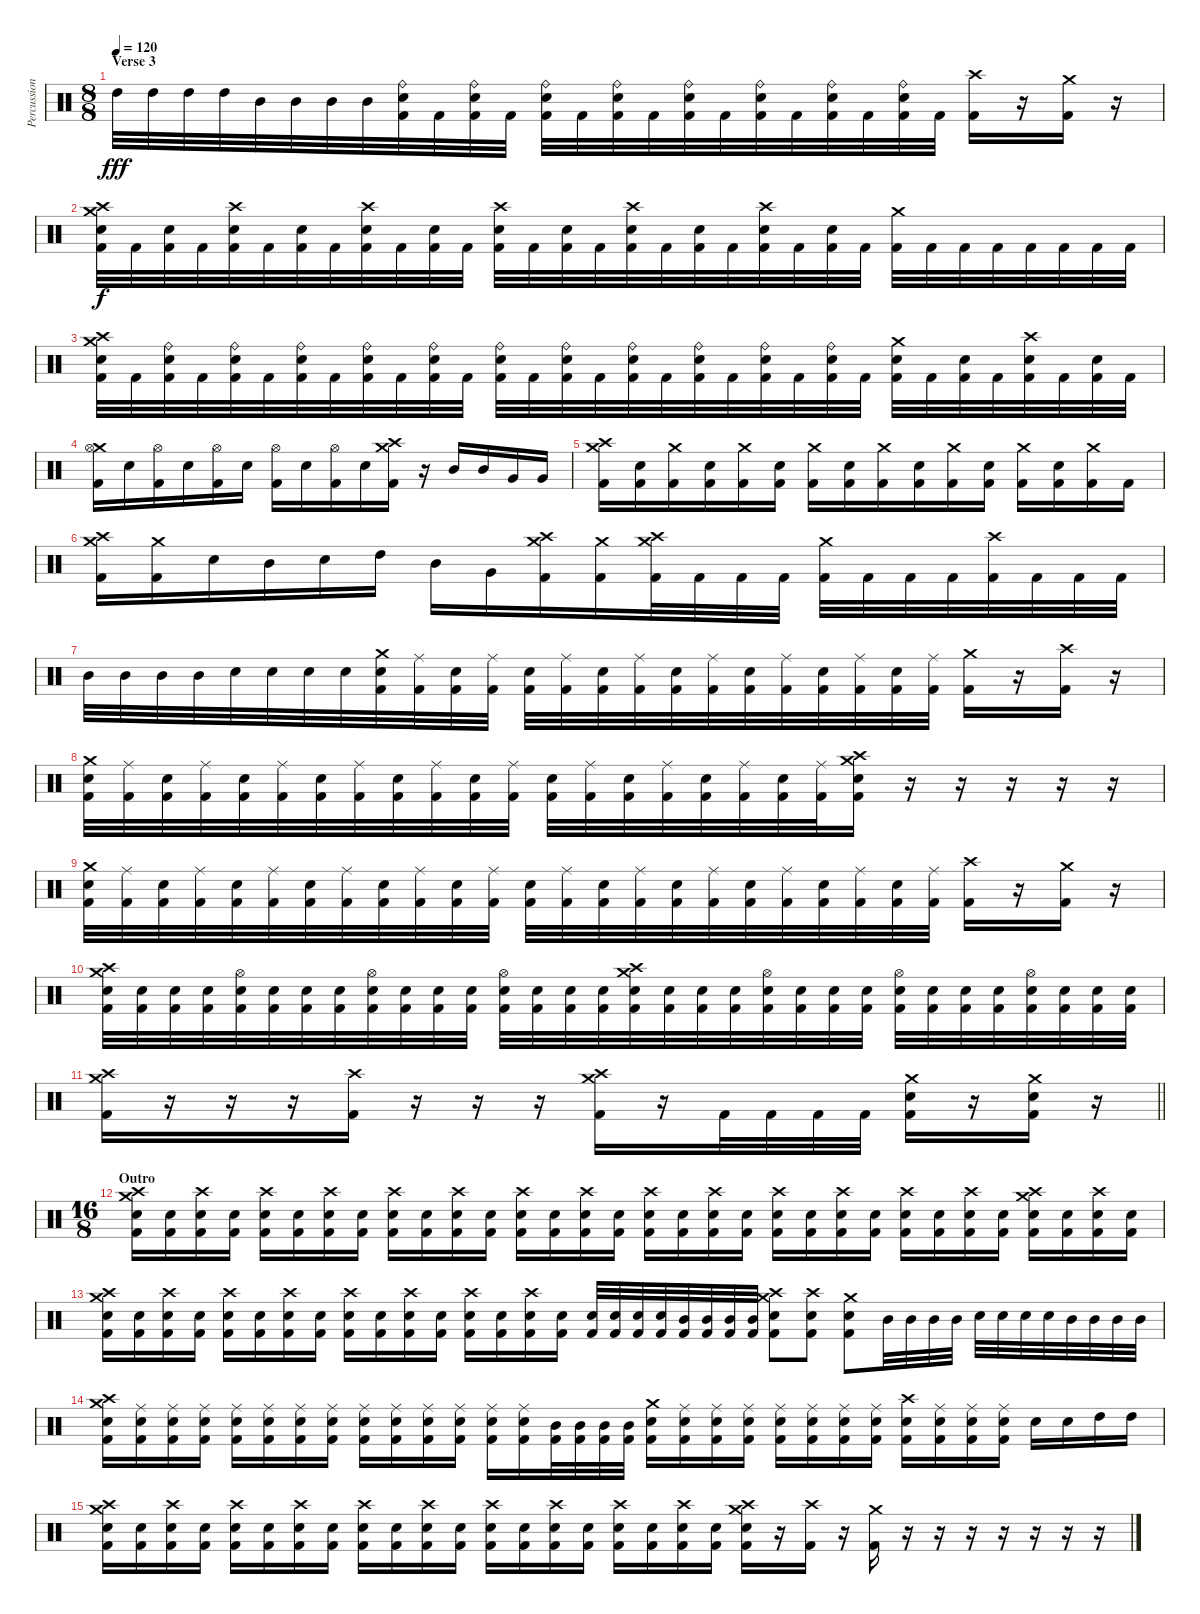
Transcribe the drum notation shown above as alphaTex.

\track ("Percussion" "Percussion") {instrument percussion}
\staff {score}
\articulation defaults
\ts (8 8)
\section ("" "Verse 3")
\tempo 120
\clef neutral
\ks c "High Tom (hit)".32{dy fff} "High Tom (hit)".32 "High Tom (hit)".32 "High Tom (hit)".32 "Mid Tom (hit)".32 "Mid Tom (hit)".32 "Mid Tom (hit)".32 "Mid Tom (hit)".32
("Ride (bell)" "Snare (hit) 2" "Kick (hit) 2").32 "Kick (hit) 2".32 ("Ride (bell)" "Snare (hit) 2" "Kick (hit) 2").32 "Kick (hit) 2".32 ("Ride (bell)" "Snare (hit) 2" "Kick (hit) 2").32 "Kick (hit) 2".32 ("Ride (bell)" "Snare (hit) 2" "Kick (hit) 2").32 "Kick (hit) 2".32 ("Ride (bell)" "Snare (hit) 2" "Kick (hit) 2").32 "Kick (hit) 2".32 ("Ride (bell)" "Snare (hit) 2" "Kick (hit) 2").32 "Kick (hit) 2".32 ("Ride (bell)" "Snare (hit) 2" "Kick (hit) 2").32 "Kick (hit) 2".32 ("Ride (bell)" "Snare (hit) 2" "Kick (hit) 2").32 "Kick (hit) 2".32 ("Crash high (hit)" "Kick (hit) 2").16 r.16 ("Crash medium (hit)" "Kick (hit) 2").16 r.16 |
("Crash medium (hit)" "Crash high (hit)" "Snare (hit) 2" "Kick (hit) 2").32{dy f} "Kick (hit) 2".32 ("Snare (hit) 2" "Kick (hit) 2").32 "Kick (hit) 2".32 ("Crash high (hit)" "Snare (hit) 2" "Kick (hit) 2").32 "Kick (hit) 2".32 ("Snare (hit) 2" "Kick (hit) 2").32 "Kick (hit) 2".32 ("Crash high (hit)" "Snare (hit) 2" "Kick (hit) 2").32 "Kick (hit) 2".32 ("Snare (hit) 2" "Kick (hit) 2").32 "Kick (hit) 2".32 ("Crash high (hit)" "Snare (hit) 2" "Kick (hit) 2").32 "Kick (hit) 2".32 ("Snare (hit) 2" "Kick (hit) 2").32 "Kick (hit) 2".32 ("Crash high (hit)" "Snare (hit) 2" "Kick (hit) 2").32 "Kick (hit) 2".32 ("Snare (hit) 2" "Kick (hit) 2").32 "Kick (hit) 2".32 ("Crash high (hit)" "Snare (hit) 2" "Kick (hit) 2").32 "Kick (hit) 2".32 ("Snare (hit) 2" "Kick (hit) 2").32 "Kick (hit) 2".32 ("Crash medium (hit)" "Kick (hit) 2").32 "Kick (hit) 2".32 "Kick (hit) 2".32 "Kick (hit) 2".32 "Kick (hit) 2".32 "Kick (hit) 2".32 "Kick (hit) 2".32 "Kick (hit) 2".32 |
("Crash medium (hit)" "Crash high (hit)" "Snare (hit) 2" "Kick (hit) 2").32 "Kick (hit) 2".32 ("Ride (bell)" "Snare (hit) 2" "Kick (hit) 2").32 "Kick (hit) 2".32 ("Ride (bell)" "Snare (hit) 2" "Kick (hit) 2").32 "Kick (hit) 2".32 ("Ride (bell)" "Snare (hit) 2" "Kick (hit) 2").32 "Kick (hit) 2".32 ("Ride (bell)" "Snare (hit) 2" "Kick (hit) 2").32 "Kick (hit) 2".32 ("Ride (bell)" "Snare (hit) 2" "Kick (hit) 2").32 "Kick (hit) 2".32 ("Ride (bell)" "Snare (hit) 2" "Kick (hit) 2").32 "Kick (hit) 2".32 ("Ride (bell)" "Snare (hit) 2" "Kick (hit) 2").32 "Kick (hit) 2".32 ("Ride (bell)" "Snare (hit) 2" "Kick (hit) 2").32 "Kick (hit) 2".32 ("Ride (bell)" "Snare (hit) 2" "Kick (hit) 2").32 "Kick (hit) 2".32 ("Ride (bell)" "Snare (hit) 2" "Kick (hit) 2").32 "Kick (hit) 2".32 ("Ride (bell)" "Snare (hit) 2" "Kick (hit) 2").32 "Kick (hit) 2".32 ("Crash medium (hit)" "Snare (hit) 2" "Kick (hit) 2").32 "Kick (hit) 2".32 ("Snare (hit) 2" "Kick (hit) 2").32 "Kick (hit) 2".32 ("Crash high (hit)" "Snare (hit) 2" "Kick (hit) 2").32 "Kick (hit) 2".32 ("Snare (hit) 2" "Kick (hit) 2").32 "Kick (hit) 2".32 |
("Crash medium (hit)" "Hi-Hat (open)" "Kick (hit) 2").16 "Snare (hit) 2".16 ("Hi-Hat (open)" "Kick (hit) 2").16 "Snare (hit) 2".16 ("Hi-Hat (open)" "Kick (hit) 2").16 "Snare (hit) 2".16 ("Hi-Hat (open)" "Kick (hit) 2").16 "Snare (hit) 2".16 ("Hi-Hat (open)" "Kick (hit) 2").16 "Snare (hit) 2".16 ("Crash high (hit)" "Crash medium (hit)" "Kick (hit) 2").16 r.16 "Mid Tom (hit)".16 "Mid Tom (hit)".16 "Very Low Tom (hit)".16 "Very Low Tom (hit)".16 |
("Crash medium (hit)" "Crash high (hit)" "Kick (hit) 2").16 ("Snare (hit) 2" "Kick (hit) 2").16 ("Crash medium (hit)" "Kick (hit) 2").16 ("Snare (hit) 2" "Kick (hit) 2").16 ("Crash medium (hit)" "Kick (hit) 2").16 ("Snare (hit) 2" "Kick (hit) 2").16 ("Crash medium (hit)" "Kick (hit) 2").16 ("Snare (hit) 2" "Kick (hit) 2").16 ("Crash medium (hit)" "Kick (hit) 2").16 ("Snare (hit) 2" "Kick (hit) 2").16 ("Crash medium (hit)" "Kick (hit) 2").16 ("Snare (hit) 2" "Kick (hit) 2").16 ("Crash medium (hit)" "Kick (hit) 2").16 ("Snare (hit) 2" "Kick (hit) 2").16 ("Crash medium (hit)" "Kick (hit) 2").16 "Kick (hit) 2".16 |
("Crash medium (hit)" "Crash high (hit)" "Kick (hit) 2").16 ("Crash medium (hit)" "Kick (hit) 2").16 "Snare (hit) 2".16 "Mid Tom (hit)".16 "Snare (hit) 2".16 "High Tom (hit)".16 "Mid Tom (hit)".16 "Very Low Tom (hit)".16 ("Crash medium (hit)" "Crash high (hit)" "Kick (hit) 2").16 ("Crash medium (hit)" "Kick (hit) 2").16 ("Crash medium (hit)" "Crash high (hit)" "Kick (hit) 2").32 "Kick (hit) 2".32 "Kick (hit) 2".32 "Kick (hit) 2".32 ("Crash medium (hit)" "Kick (hit) 2").32 "Kick (hit) 2".32 "Kick (hit) 2".32 "Kick (hit) 2".32 ("Crash high (hit)" "Kick (hit) 2").32 "Kick (hit) 2".32 "Kick (hit) 2".32 "Kick (hit) 2".32 |
"Mid Tom (hit)".32 "Mid Tom (hit)".32 "Mid Tom (hit)".32 "Mid Tom (hit)".32 "Snare (hit) 2".32 "Snare (hit) 2".32 "Snare (hit) 2".32 "Snare (hit) 2".32 ("Crash medium (hit)" "Snare (hit) 2" "Kick (hit) 2").32 ("Ride (middle)" "Kick (hit) 2").32 ("Snare (hit) 2" "Kick (hit) 2").32 ("Ride (middle)" "Kick (hit) 2").32 ("Snare (hit) 2" "Kick (hit) 2").32 ("Ride (middle)" "Kick (hit) 2").32 ("Snare (hit) 2" "Kick (hit) 2").32 ("Ride (middle)" "Kick (hit) 2").32 ("Snare (hit) 2" "Kick (hit) 2").32 ("Ride (middle)" "Kick (hit) 2").32 ("Snare (hit) 2" "Kick (hit) 2").32 ("Ride (middle)" "Kick (hit) 2").32 ("Snare (hit) 2" "Kick (hit) 2").32 ("Ride (middle)" "Kick (hit) 2").32 ("Snare (hit) 2" "Kick (hit) 2").32 ("Ride (middle)" "Kick (hit) 2").32 ("Crash medium (hit)" "Kick (hit) 2").16 r.16 ("Crash high (hit)" "Kick (hit) 2").16 r.16 |
("Crash medium (hit)" "Snare (hit) 2" "Kick (hit) 2").32 ("Ride (middle)" "Kick (hit) 2").32 ("Snare (hit) 2" "Kick (hit) 2").32 ("Ride (middle)" "Kick (hit) 2").32 ("Snare (hit) 2" "Kick (hit) 2").32 ("Ride (middle)" "Kick (hit) 2").32 ("Snare (hit) 2" "Kick (hit) 2").32 ("Ride (middle)" "Kick (hit) 2").32 ("Snare (hit) 2" "Kick (hit) 2").32 ("Ride (middle)" "Kick (hit) 2").32 ("Snare (hit) 2" "Kick (hit) 2").32 ("Ride (middle)" "Kick (hit) 2").32 ("Snare (hit) 2" "Kick (hit) 2").32 ("Ride (middle)" "Kick (hit) 2").32 ("Snare (hit) 2" "Kick (hit) 2").32 ("Ride (middle)" "Kick (hit) 2").32 ("Snare (hit) 2" "Kick (hit) 2").32 ("Ride (middle)" "Kick (hit) 2").32 ("Snare (hit) 2" "Kick (hit) 2").32 ("Ride (middle)" "Kick (hit) 2").32 ("Crash medium (hit)" "Crash high (hit)" "Snare (hit) 2" "Kick (hit) 2").16 r.16 r.16 r.16 r.16 r.16 |
("Crash medium (hit)" "Snare (hit) 2" "Kick (hit) 2").32 ("Ride (middle)" "Kick (hit) 2").32 ("Snare (hit) 2" "Kick (hit) 2").32 ("Ride (middle)" "Kick (hit) 2").32 ("Snare (hit) 2" "Kick (hit) 2").32 ("Ride (middle)" "Kick (hit) 2").32 ("Snare (hit) 2" "Kick (hit) 2").32 ("Ride (middle)" "Kick (hit) 2").32 ("Snare (hit) 2" "Kick (hit) 2").32 ("Ride (middle)" "Kick (hit) 2").32 ("Snare (hit) 2" "Kick (hit) 2").32 ("Ride (middle)" "Kick (hit) 2").32 ("Snare (hit) 2" "Kick (hit) 2").32 ("Ride (middle)" "Kick (hit) 2").32 ("Snare (hit) 2" "Kick (hit) 2").32 ("Ride (middle)" "Kick (hit) 2").32 ("Snare (hit) 2" "Kick (hit) 2").32 ("Ride (middle)" "Kick (hit) 2").32 ("Snare (hit) 2" "Kick (hit) 2").32 ("Ride (middle)" "Kick (hit) 2").32 ("Snare (hit) 2" "Kick (hit) 2").32 ("Ride (middle)" "Kick (hit) 2").32 ("Snare (hit) 2" "Kick (hit) 2").32 ("Ride (middle)" "Kick (hit) 2").32 ("Crash high (hit)" "Kick (hit) 2").16 r.16 ("Crash medium (hit)" "Kick (hit) 2").16 r.16 |
("Crash medium (hit)" "Crash high (hit)" "Snare (hit) 2" "Kick (hit) 2").32 ("Snare (hit) 2" "Kick (hit) 2").32 ("Snare (hit) 2" "Kick (hit) 2").32 ("Snare (hit) 2" "Kick (hit) 2").32 ("Hi-Hat (open)" "Snare (hit) 2" "Kick (hit) 2").32 ("Snare (hit) 2" "Kick (hit) 2").32 ("Snare (hit) 2" "Kick (hit) 2").32 ("Snare (hit) 2" "Kick (hit) 2").32 ("Hi-Hat (open)" "Snare (hit) 2" "Kick (hit) 2").32 ("Snare (hit) 2" "Kick (hit) 2").32 ("Snare (hit) 2" "Kick (hit) 2").32 ("Snare (hit) 2" "Kick (hit) 2").32 ("Hi-Hat (open)" "Snare (hit) 2" "Kick (hit) 2").32 ("Snare (hit) 2" "Kick (hit) 2").32 ("Snare (hit) 2" "Kick (hit) 2").32 ("Snare (hit) 2" "Kick (hit) 2").32 ("Crash medium (hit)" "Crash high (hit)" "Snare (hit) 2" "Kick (hit) 2").32 ("Snare (hit) 2" "Kick (hit) 2").32 ("Snare (hit) 2" "Kick (hit) 2").32 ("Snare (hit) 2" "Kick (hit) 2").32 ("Hi-Hat (open)" "Snare (hit) 2" "Kick (hit) 2").32 ("Snare (hit) 2" "Kick (hit) 2").32 ("Snare (hit) 2" "Kick (hit) 2").32 ("Snare (hit) 2" "Kick (hit) 2").32 ("Hi-Hat (open)" "Snare (hit) 2" "Kick (hit) 2").32 ("Snare (hit) 2" "Kick (hit) 2").32 ("Snare (hit) 2" "Kick (hit) 2").32 ("Snare (hit) 2" "Kick (hit) 2").32 ("Hi-Hat (open)" "Snare (hit) 2" "Kick (hit) 2").32 ("Snare (hit) 2" "Kick (hit) 2").32 ("Snare (hit) 2" "Kick (hit) 2").32 ("Snare (hit) 2" "Kick (hit) 2").32 |
\barLineRight lightlight
("Crash medium (hit)" "Crash high (hit)" "Kick (hit) 2").16 r.16 r.16 r.16 ("Crash high (hit)" "Kick (hit) 2").16 r.16 r.16 r.16 ("Crash high (hit)" "Crash medium (hit)" "Kick (hit) 2").16 r.16 "Kick (hit) 2".32 "Kick (hit) 2".32 "Kick (hit) 2".32 "Kick (hit) 2".32 ("Crash medium (hit)" "Snare (hit) 2" "Kick (hit) 2").16 r.16 ("Crash medium (hit)" "Snare (hit) 2" "Kick (hit) 2").16 r.16 |
\ts (16 8)
\section ("" "Outro")
("Crash medium (hit)" "Crash high (hit)" "Snare (hit) 2" "Kick (hit) 2").16 ("Snare (hit) 2" "Kick (hit) 2").16 ("Crash high (hit)" "Snare (hit) 2" "Kick (hit) 2").16 ("Snare (hit) 2" "Kick (hit) 2").16 ("Crash high (hit)" "Snare (hit) 2" "Kick (hit) 2").16 ("Snare (hit) 2" "Kick (hit) 2").16 ("Crash high (hit)" "Snare (hit) 2" "Kick (hit) 2").16 ("Snare (hit) 2" "Kick (hit) 2").16 ("Crash high (hit)" "Snare (hit) 2" "Kick (hit) 2").16 ("Snare (hit) 2" "Kick (hit) 2").16 ("Crash high (hit)" "Snare (hit) 2" "Kick (hit) 2").16 ("Snare (hit) 2" "Kick (hit) 2").16 ("Crash high (hit)" "Snare (hit) 2" "Kick (hit) 2").16 ("Snare (hit) 2" "Kick (hit) 2").16 ("Crash high (hit)" "Snare (hit) 2" "Kick (hit) 2").16 ("Snare (hit) 2" "Kick (hit) 2").16 ("Crash high (hit)" "Snare (hit) 2" "Kick (hit) 2").16 ("Snare (hit) 2" "Kick (hit) 2").16 ("Crash high (hit)" "Snare (hit) 2" "Kick (hit) 2").16 ("Snare (hit) 2" "Kick (hit) 2").16 ("Crash high (hit)" "Snare (hit) 2" "Kick (hit) 2").16 ("Snare (hit) 2" "Kick (hit) 2").16 ("Crash high (hit)" "Snare (hit) 2" "Kick (hit) 2").16 ("Snare (hit) 2" "Kick (hit) 2").16 ("Crash high (hit)" "Snare (hit) 2" "Kick (hit) 2").16 ("Snare (hit) 2" "Kick (hit) 2").16 ("Crash high (hit)" "Snare (hit) 2" "Kick (hit) 2").16 ("Snare (hit) 2" "Kick (hit) 2").16 ("Crash medium (hit)" "Crash high (hit)" "Snare (hit) 2" "Kick (hit) 2").16 ("Snare (hit) 2" "Kick (hit) 2").16 ("Crash high (hit)" "Snare (hit) 2" "Kick (hit) 2").16 ("Snare (hit) 2" "Kick (hit) 2").16 |
("Crash medium (hit)" "Crash high (hit)" "Snare (hit) 2" "Kick (hit) 2").16 ("Snare (hit) 2" "Kick (hit) 2").16 ("Crash high (hit)" "Snare (hit) 2" "Kick (hit) 2").16 ("Snare (hit) 2" "Kick (hit) 2").16 ("Crash high (hit)" "Snare (hit) 2" "Kick (hit) 2").16 ("Snare (hit) 2" "Kick (hit) 2").16 ("Crash high (hit)" "Snare (hit) 2" "Kick (hit) 2").16 ("Snare (hit) 2" "Kick (hit) 2").16 ("Crash high (hit)" "Snare (hit) 2" "Kick (hit) 2").16 ("Snare (hit) 2" "Kick (hit) 2").16 ("Crash high (hit)" "Snare (hit) 2" "Kick (hit) 2").16 ("Snare (hit) 2" "Kick (hit) 2").16 ("Crash high (hit)" "Snare (hit) 2" "Kick (hit) 2").16 ("Snare (hit) 2" "Kick (hit) 2").16 ("Crash high (hit)" "Snare (hit) 2" "Kick (hit) 2").16 ("Snare (hit) 2" "Kick (hit) 2").16 ("Snare (hit) 2" "Kick (hit) 2").32 ("Snare (hit) 2" "Kick (hit) 2").32 ("Snare (hit) 2" "Kick (hit) 2").32 ("Snare (hit) 2" "Kick (hit) 2").32 ("Mid Tom (hit)" "Kick (hit) 2").32 ("Mid Tom (hit)" "Kick (hit) 2").32 ("Mid Tom (hit)" "Kick (hit) 2").32 ("Mid Tom (hit)" "Kick (hit) 2").32 ("Crash medium (hit)" "Crash high (hit)" "Snare (hit) 2" "Kick (hit) 2").8 ("Crash high (hit)" "Snare (hit) 2" "Kick (hit) 2").8 ("Crash medium (hit)" "Snare (hit) 2" "Kick (hit) 2").8 "Mid Tom (hit)".32 "Mid Tom (hit)".32 "Mid Tom (hit)".32 "Mid Tom (hit)".32 "Snare (hit) 2".32 "Snare (hit) 2".32 "Snare (hit) 2".32 "Snare (hit) 2".32 "Mid Tom (hit)".32 "Mid Tom (hit)".32 "Mid Tom (hit)".32 "Mid Tom (hit)".32 |
("Crash medium (hit)" "Crash high (hit)" "Snare (hit) 2" "Kick (hit) 2").16 ("Ride (middle)" "Snare (hit) 2" "Kick (hit) 2").16 ("Ride (middle)" "Snare (hit) 2" "Kick (hit) 2").16 ("Ride (middle)" "Snare (hit) 2" "Kick (hit) 2").16 ("Ride (middle)" "Snare (hit) 2" "Kick (hit) 2").16 ("Ride (middle)" "Snare (hit) 2" "Kick (hit) 2").16 ("Ride (middle)" "Snare (hit) 2" "Kick (hit) 2").16 ("Ride (middle)" "Snare (hit) 2" "Kick (hit) 2").16 ("Ride (middle)" "Snare (hit) 2" "Kick (hit) 2").16 ("Ride (middle)" "Snare (hit) 2" "Kick (hit) 2").16 ("Ride (middle)" "Snare (hit) 2" "Kick (hit) 2").16 ("Ride (middle)" "Snare (hit) 2" "Kick (hit) 2").16 ("Ride (middle)" "Snare (hit) 2" "Kick (hit) 2").16 ("Ride (middle)" "Snare (hit) 2" "Kick (hit) 2").16 ("Mid Tom (hit)" "Kick (hit) 2").32 ("Mid Tom (hit)" "Kick (hit) 2").32 ("Mid Tom (hit)" "Kick (hit) 2").32 ("Mid Tom (hit)" "Kick (hit) 2").32 ("Crash medium (hit)" "Snare (hit) 2" "Kick (hit) 2").16 ("Ride (middle)" "Snare (hit) 2" "Kick (hit) 2").16 ("Ride (middle)" "Snare (hit) 2" "Kick (hit) 2").16 ("Ride (middle)" "Snare (hit) 2" "Kick (hit) 2").16 ("Ride (middle)" "Snare (hit) 2" "Kick (hit) 2").16 ("Ride (middle)" "Snare (hit) 2" "Kick (hit) 2").16 ("Ride (middle)" "Snare (hit) 2" "Kick (hit) 2").16 ("Ride (middle)" "Snare (hit) 2" "Kick (hit) 2").16 ("Crash high (hit)" "Snare (hit) 2" "Kick (hit) 2").16 ("Ride (middle)" "Snare (hit) 2" "Kick (hit) 2").16 ("Ride (middle)" "Snare (hit) 2" "Kick (hit) 2").16 ("Ride (middle)" "Snare (hit) 2" "Kick (hit) 2").16 "Snare (hit) 2".16 "Snare (hit) 2".16 "High Tom (hit)".16 "High Tom (hit)".16 |
("Crash medium (hit)" "Crash high (hit)" "Snare (hit) 2" "Kick (hit) 2").16 ("Snare (hit) 2" "Kick (hit) 2").16 ("Crash high (hit)" "Snare (hit) 2" "Kick (hit) 2").16 ("Snare (hit) 2" "Kick (hit) 2").16 ("Crash high (hit)" "Snare (hit) 2" "Kick (hit) 2").16 ("Snare (hit) 2" "Kick (hit) 2").16 ("Crash high (hit)" "Snare (hit) 2" "Kick (hit) 2").16 ("Snare (hit) 2" "Kick (hit) 2").16 ("Crash high (hit)" "Snare (hit) 2" "Kick (hit) 2").16 ("Snare (hit) 2" "Kick (hit) 2").16 ("Crash high (hit)" "Snare (hit) 2" "Kick (hit) 2").16 ("Snare (hit) 2" "Kick (hit) 2").16 ("Crash high (hit)" "Snare (hit) 2" "Kick (hit) 2").16 ("Snare (hit) 2" "Kick (hit) 2").16 ("Crash high (hit)" "Snare (hit) 2" "Kick (hit) 2").16 ("Snare (hit) 2" "Kick (hit) 2").16 ("Crash high (hit)" "Snare (hit) 2" "Kick (hit) 2").16 ("Snare (hit) 2" "Kick (hit) 2").16 ("Crash high (hit)" "Snare (hit) 2" "Kick (hit) 2").16 ("Snare (hit) 2" "Kick (hit) 2").16 ("Crash medium (hit)" "Crash high (hit)" "Snare (hit) 2" "Kick (hit) 2").16 r.16 ("Crash high (hit)" "Kick (hit) 2").16 r.16 ("Crash medium (hit)" "Kick (hit) 2").16 r.16 r.16 r.16 r.16 r.16 r.16 r.16
